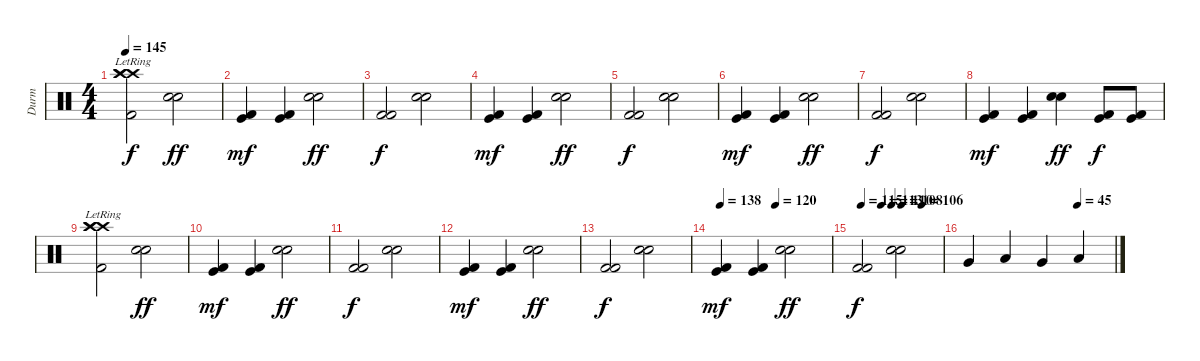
\track ("Durm" "Durm") {instrument percussion}
\staff {score}
\articulation defaults
\ts (4 4)
\tempo 145
\clef neutral
\ks c
("Crash high (hit)" "Kick (hit) 2" "Crash high (hit)"{lr} "Crash high (hit)"{lr}).2{dy f} ("Snare (hit) 2" "Snare (hit) 2").2{dy ff} |
("Kick (hit)" "Kick (hit) 2").4{dy mf} ("Kick (hit)" "Kick (hit) 2").4 ("Snare (hit) 2" "Snare (hit) 2").2{dy ff} |
("Kick (hit) 2" "Kick (hit) 2").2{dy f} ("Snare (hit) 2" "Snare (hit) 2").2 |
("Kick (hit)" "Kick (hit) 2").4{dy mf} ("Kick (hit)" "Kick (hit) 2").4 ("Snare (hit) 2" "Snare (hit) 2").2{dy ff} |
("Kick (hit) 2" "Kick (hit) 2").2{dy f} ("Snare (hit) 2" "Snare (hit) 2").2 |
("Kick (hit)" "Kick (hit) 2").4{dy mf} ("Kick (hit)" "Kick (hit) 2").4 ("Snare (hit) 2" "Snare (hit) 2").2{dy ff} |
("Kick (hit) 2" "Kick (hit) 2").2{dy f} ("Snare (hit) 2" "Snare (hit) 2").2 |
("Kick (hit)" "Kick (hit) 2").4{dy mf} ("Kick (hit)" "Kick (hit) 2").4 ("Snare (hit) 2" "Snare (hit) 2").4{dy ff} ("Kick (hit)" "Kick (hit) 2").8{dy f} ("Kick (hit)" "Kick (hit) 2").8 |
("Crash high (hit)" "Kick (hit) 2" "Crash high (hit)"{lr} "Crash high (hit)"{lr}).2 ("Snare (hit) 2" "Snare (hit) 2").2{dy ff} |
("Kick (hit)" "Kick (hit) 2").4{dy mf} ("Kick (hit)" "Kick (hit) 2").4 ("Snare (hit) 2" "Snare (hit) 2").2{dy ff} |
("Kick (hit) 2" "Kick (hit) 2").2{dy f} ("Snare (hit) 2" "Snare (hit) 2").2 |
("Kick (hit)" "Kick (hit) 2").4{dy mf} ("Kick (hit)" "Kick (hit) 2").4 ("Snare (hit) 2" "Snare (hit) 2").2{dy ff} |
("Kick (hit) 2" "Kick (hit) 2").2{dy f} ("Snare (hit) 2" "Snare (hit) 2").2 |
\tempo 138
\tempo (120 0.5)
("Kick (hit)" "Kick (hit) 2").4{dy mf} ("Kick (hit)" "Kick (hit) 2").4 ("Snare (hit) 2" "Snare (hit) 2").2{dy ff} |
\tempo 115
\tempo (113 0.25)
\tempo (110 0.375)
\tempo (108 0.5)
\tempo (106 0.75)
("Kick (hit) 2" "Kick (hit) 2").2{dy f} ("Snare (hit) 2" "Snare (hit) 2").2 |
\tempo (45 0.75)
"Very Low Tom (hit)".4 "Low Floor Tom (hit)".4 "Very Low Tom (hit)".4 "Low Floor Tom (hit)".4
